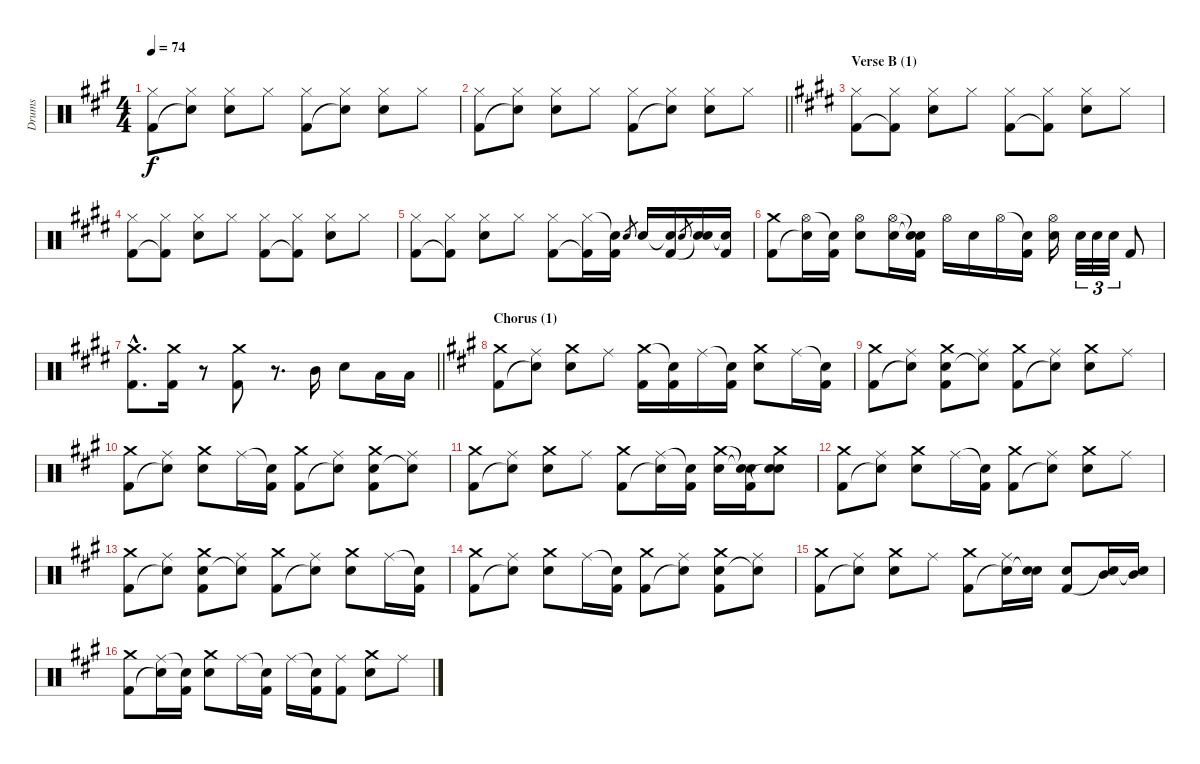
\track ("Drums" "Drums") {instrument percussion}
\staff {score}
\articulation defaults
\ts (4 4)
\tempo 74
\clef neutral
\ks f#minor
("Hi-Hat (closed)" "Kick (hit) 2").8{dy f} ("Hi-Hat (closed)" "Snare (hit)"{t}).8 ("Hi-Hat (closed)" "Electric Snare (hit)").8 "Hi-Hat (closed)".8 ("Hi-Hat (closed)" "Kick (hit) 2").8 ("Hi-Hat (closed)" "Snare (hit)"{t}).8 ("Hi-Hat (closed)" "Electric Snare (hit)").8 "Hi-Hat (closed)".8 |
\barLineRight lightlight
("Hi-Hat (closed)" "Kick (hit) 2").8 ("Hi-Hat (closed)" "Snare (hit)"{t}).8 ("Hi-Hat (closed)" "Electric Snare (hit)").8 "Hi-Hat (closed)".8 ("Hi-Hat (closed)" "Kick (hit) 2").8 ("Hi-Hat (closed)" "Snare (hit)"{t}).8 ("Hi-Hat (closed)" "Electric Snare (hit)").8 "Hi-Hat (closed)".8 |
\section ("" "Verse B (1)")
\ks c#minor
("Hi-Hat (closed)" "Kick (hit) 2").8 ("Hi-Hat (closed)" "Kick (hit) 2"{t}).8 ("Hi-Hat (closed)" "Electric Snare (hit)").8 "Hi-Hat (closed)".8 ("Hi-Hat (closed)" "Kick (hit) 2").8 ("Hi-Hat (closed)" "Kick (hit) 2"{t}).8 ("Hi-Hat (closed)" "Electric Snare (hit)").8 "Hi-Hat (closed)".8 |
("Hi-Hat (closed)" "Kick (hit) 2").8 ("Hi-Hat (closed)" "Kick (hit) 2"{t}).8 ("Hi-Hat (closed)" "Electric Snare (hit)").8 "Hi-Hat (closed)".8 ("Hi-Hat (closed)" "Kick (hit) 2").8 ("Hi-Hat (closed)" "Kick (hit) 2"{t}).8 ("Hi-Hat (closed)" "Electric Snare (hit)").8 "Hi-Hat (closed)".8 |
("Hi-Hat (closed)" "Kick (hit) 2").8 ("Hi-Hat (closed)" "Kick (hit) 2"{t}).8 ("Hi-Hat (closed)" "Electric Snare (hit)").8 "Hi-Hat (closed)".8 ("Hi-Hat (closed)" "Kick (hit) 2").8 ("Hi-Hat (closed)" "Kick (hit) 2"{t}).16 ("Snare (hit)"{t} "Kick (hit) 2").16 "Electric Snare (hit)".8{gr} "Electric Snare (hit)".16 ("Snare (hit)"{t} "Kick (hit) 2").16 "Electric Snare (hit)".8{gr} ("Electric Snare (hit)" "Snare (hit)"{t}).16 ("Snare (hit)"{t} "Kick (hit) 2").16 |
("Crash medium (hit)" "Kick (hit) 2").8 ("Hi-Hat (open)" "Snare (hit)"{t}).16 ("Snare (hit)"{t} "Kick (hit) 2").16 ("Hi-Hat (open)" "Electric Snare (hit)").8 ("Hi-Hat (open)" "Electric Snare (hit)").16 ("Snare (hit)"{t} "Snare (hit)"{t} "Kick (hit) 2").16 "Hi-Hat (open)".16 "Electric Snare (hit)".16 "Hi-Hat (open)".16 ("Snare (hit)"{t} "Kick (hit) 2").16 ("Hi-Hat (open)" "Electric Snare (hit)").16 "Electric Snare (hit)".32{tu (3 2)} "Electric Snare (hit)".32{tu (3 2)} "Electric Snare (hit)".32{tu (3 2)} "Kick (hit) 2".8 |
\barLineRight lightlight
("Crash medium (hit)"{hac} "Kick (hit) 2"{hac}).8{d} ("Crash medium (hit)" "Kick (hit) 2").16 r.8 ("Crash medium (hit)" "Kick (hit) 2").8 r.8{d} "Mid Tom (hit)".16 "Electric Snare (hit)".8 "Low Floor Tom (hit)".16 "Low Floor Tom (hit)".16 |
\section ("" "Chorus (1)")
\ks a
("Crash medium (hit)" "Kick (hit) 2").8 ("Ride (middle)" "Snare (hit)"{t}).8 ("Crash medium (hit)" "Electric Snare (hit)").8 "Ride (middle)".8 ("Crash medium (hit)" "Kick (hit) 2").16 ("Snare (hit)"{t} "Kick (hit) 2").16 "Ride (middle)".16 ("Snare (hit)"{t} "Kick (hit) 2").16 ("Crash medium (hit)" "Electric Snare (hit)").8 "Ride (middle)".16 ("Snare (hit)"{t} "Kick (hit) 2").16 |
("Crash medium (hit)" "Kick (hit) 2").8 ("Ride (middle)" "Snare (hit)"{t}).8 ("Crash medium (hit)" "Electric Snare (hit)" "Kick (hit) 2").8 ("Ride (middle)" "Snare (hit)"{t}).8 ("Crash medium (hit)" "Kick (hit) 2").8 ("Ride (middle)" "Snare (hit)"{t}).8 ("Crash medium (hit)" "Electric Snare (hit)").8 "Ride (middle)".8 |
("Crash medium (hit)" "Kick (hit) 2").8 ("Ride (middle)" "Snare (hit)"{t}).8 ("Crash medium (hit)" "Electric Snare (hit)").8 "Ride (middle)".16 ("Snare (hit)"{t} "Kick (hit) 2").16 ("Crash medium (hit)" "Kick (hit) 2").8 ("Ride (middle)" "Snare (hit)"{t}).8 ("Crash medium (hit)" "Electric Snare (hit)" "Kick (hit) 2").8 ("Ride (middle)" "Snare (hit)"{t}).8 |
("Crash medium (hit)" "Kick (hit) 2").8 ("Ride (middle)" "Snare (hit)"{t}).8 ("Crash medium (hit)" "Electric Snare (hit)").8 "Ride (middle)".8 ("Crash medium (hit)" "Kick (hit) 2").8 ("Ride (middle)" "Snare (hit)"{t}).16 ("Snare (hit)"{t} "Kick (hit) 2").16 ("Crash medium (hit)" "Electric Snare (hit)").16 ("Snare (hit)"{t} "Snare (hit)"{t} "Kick (hit) 2").16 ("Crash medium (hit)" "Electric Snare (hit)" "Snare (hit)"{t}).8 |
("Crash medium (hit)" "Kick (hit) 2").8 ("Ride (middle)" "Snare (hit)"{t}).8 ("Crash medium (hit)" "Electric Snare (hit)").8 "Ride (middle)".16 ("Snare (hit)"{t} "Kick (hit) 2").16 ("Crash medium (hit)" "Kick (hit) 2").8 ("Ride (middle)" "Snare (hit)"{t}).8 ("Crash medium (hit)" "Electric Snare (hit)").8 "Ride (middle)".8 |
("Crash medium (hit)" "Kick (hit) 2").8 ("Ride (middle)" "Snare (hit)"{t}).8 ("Crash medium (hit)" "Electric Snare (hit)" "Kick (hit) 2").8 ("Ride (middle)" "Snare (hit)"{t}).8 ("Crash medium (hit)" "Kick (hit) 2").8 ("Ride (middle)" "Snare (hit)"{t}).8 ("Crash medium (hit)" "Electric Snare (hit)").8 "Ride (middle)".16 ("Snare (hit)"{t} "Kick (hit) 2").16 |
("Crash medium (hit)" "Kick (hit) 2").8 ("Ride (middle)" "Snare (hit)"{t}).8 ("Crash medium (hit)" "Electric Snare (hit)").8 "Ride (middle)".16 ("Snare (hit)"{t} "Kick (hit) 2").16 ("Crash medium (hit)" "Kick (hit) 2").8 ("Ride (middle)" "Snare (hit)"{t}).8 ("Crash medium (hit)" "Electric Snare (hit)" "Kick (hit) 2").8 ("Ride (middle)" "Snare (hit)"{t}).8 |
("Crash medium (hit)" "Kick (hit) 2").8 ("Ride (middle)" "Snare (hit)"{t}).8 ("Crash medium (hit)" "Electric Snare (hit)").8 "Ride (middle)".8 ("Crash medium (hit)" "Kick (hit) 2").8 ("Ride (middle)" "Snare (hit)"{t}).16 ("Electric Snare (hit)" "Snare (hit)"{t}).16 ("Electric Snare (hit)" "Kick (hit) 2").8 ("Mid Tom (hit)" "Snare (hit)"{t}).16 ("Mid Tom (hit)" "Snare (hit)"{t}).16 |
("Crash medium (hit)" "Kick (hit) 2").8 ("Ride (middle)" "Snare (hit)"{t}).16 ("Snare (hit)"{t} "Kick (hit) 2").16 ("Crash medium (hit)" "Electric Snare (hit)").8 "Ride (middle)".16 ("Snare (hit)"{t} "Kick (hit) 2").16 "Ride (middle)".16 ("Snare (hit)"{t} "Kick (hit) 2").16 ("Ride (middle)" "Kick (hit) 2").8 ("Crash medium (hit)" "Electric Snare (hit)").8 "Ride (middle)".8
